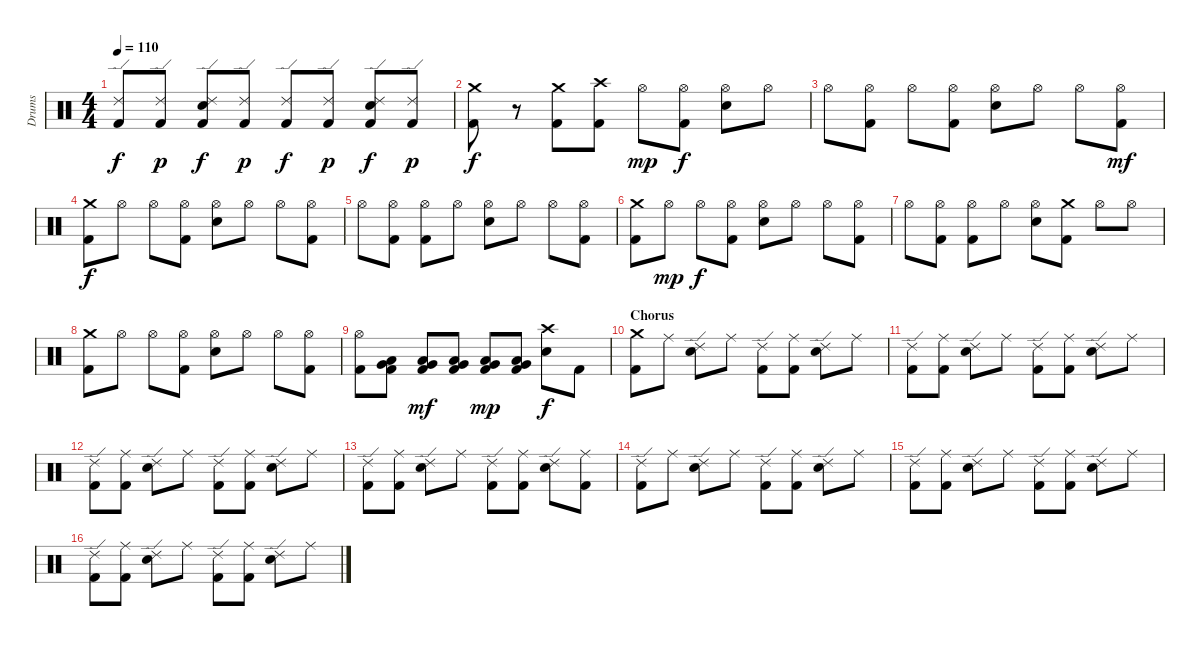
\track ("Drums" "Drums") {instrument percussion}
\staff {score}
\articulation defaults
\ts (4 4)
\tempo 110
\clef neutral
\ks c
("Ride (edge) 2" "Kick (hit) 2").8{dy f} ("Ride (edge) 2" "Kick (hit) 2").8{dy p} ("Ride (edge) 2" "Electric Snare (hit)" "Kick (hit) 2").8{dy f} ("Ride (edge) 2" "Kick (hit) 2").8{dy p} ("Ride (edge) 2" "Kick (hit) 2").8{dy f} ("Ride (edge) 2" "Kick (hit) 2").8{dy p} ("Ride (edge) 2" "Electric Snare (hit)" "Kick (hit) 2").8{dy f} ("Ride (edge) 2" "Kick (hit) 2").8{dy p} |
("Crash medium (hit)" "Kick (hit) 2").8{dy f} r.8 ("Crash medium (hit)" "Kick (hit) 2").8 ("Crash high (hit)" "Kick (hit) 2").8 "Hi-Hat (open)".8{dy mp} ("Hi-Hat (open)" "Kick (hit) 2").8{dy f} ("Hi-Hat (open)" "Electric Snare (hit)").8 "Hi-Hat (open)".8 |
"Hi-Hat (open)".8 ("Hi-Hat (open)" "Kick (hit) 2").8 "Hi-Hat (open)".8 ("Hi-Hat (open)" "Kick (hit) 2").8 ("Hi-Hat (open)" "Electric Snare (hit)").8 "Hi-Hat (open)".8 "Hi-Hat (open)".8 ("Hi-Hat (open)" "Kick (hit) 2").8{dy mf} |
("Crash medium (hit)" "Kick (hit) 2").8{dy f} "Hi-Hat (open)".8 "Hi-Hat (open)".8 ("Hi-Hat (open)" "Kick (hit) 2").8 ("Hi-Hat (open)" "Electric Snare (hit)").8 "Hi-Hat (open)".8 "Hi-Hat (open)".8 ("Hi-Hat (open)" "Kick (hit) 2").8 |
"Hi-Hat (open)".8 ("Hi-Hat (open)" "Kick (hit) 2").8 ("Hi-Hat (open)" "Kick (hit) 2").8 "Hi-Hat (open)".8 ("Hi-Hat (open)" "Electric Snare (hit)").8 "Hi-Hat (open)".8 "Hi-Hat (open)".8 ("Hi-Hat (open)" "Kick (hit) 2").8 |
("Crash medium (hit)" "Kick (hit) 2").8 "Hi-Hat (open)".8{dy mp} "Hi-Hat (open)".8{dy f} ("Hi-Hat (open)" "Kick (hit) 2").8 ("Hi-Hat (open)" "Electric Snare (hit)").8 "Hi-Hat (open)".8 "Hi-Hat (open)".8 ("Hi-Hat (open)" "Kick (hit) 2").8 |
"Hi-Hat (open)".8 ("Hi-Hat (open)" "Kick (hit) 2").8 ("Hi-Hat (open)" "Kick (hit) 2").8 "Hi-Hat (open)".8 ("Hi-Hat (open)" "Electric Snare (hit)").8 ("Crash medium (hit)" "Kick (hit) 2").8 "Hi-Hat (open)".8 "Hi-Hat (open)".8 |
("Crash medium (hit)" "Kick (hit) 2").8 "Hi-Hat (open)".8 "Hi-Hat (open)".8 ("Hi-Hat (open)" "Kick (hit) 2").8 ("Hi-Hat (open)" "Electric Snare (hit)").8 "Hi-Hat (open)".8 "Hi-Hat (open)".8 ("Hi-Hat (open)" "Kick (hit) 2").8 |
("Hi-Hat (open)" "Kick (hit) 2").8 ("Very Low Tom (hit)" "Low Floor Tom (hit)" "Kick (hit) 2").8 ("Very Low Tom (hit)" "Low Floor Tom (hit)" "Kick (hit) 2").8{dy mf} ("Very Low Tom (hit)" "Low Floor Tom (hit)" "Kick (hit) 2").8 ("Very Low Tom (hit)" "Low Floor Tom (hit)" "Kick (hit) 2").8{dy mp} ("Very Low Tom (hit)" "Low Floor Tom (hit)" "Kick (hit) 2").8 ("Crash high (hit)" "Electric Snare (hit)").8{dy f} "Kick (hit) 2".8 |
\section ("" "Chorus")
("Crash medium (hit)" "Kick (hit) 2").8 "Ride (middle)".8 ("Ride (edge) 2" "Electric Snare (hit)").8 "Ride (middle)".8 ("Ride (edge) 2" "Kick (hit) 2").8 ("Ride (middle)" "Kick (hit) 2").8 ("Ride (edge) 2" "Electric Snare (hit)").8 "Ride (middle)".8 |
("Ride (edge) 2" "Kick (hit) 2").8 ("Ride (middle)" "Kick (hit) 2").8 ("Ride (edge) 2" "Electric Snare (hit)").8 "Ride (middle)".8 ("Ride (edge) 2" "Kick (hit) 2").8 ("Ride (middle)" "Kick (hit) 2").8 ("Ride (edge) 2" "Electric Snare (hit)").8 "Ride (middle)".8 |
("Ride (edge) 2" "Kick (hit) 2").8 ("Ride (middle)" "Kick (hit) 2").8 ("Ride (edge) 2" "Electric Snare (hit)").8 "Ride (middle)".8 ("Ride (edge) 2" "Kick (hit) 2").8 ("Ride (middle)" "Kick (hit) 2").8 ("Ride (edge) 2" "Electric Snare (hit)").8 "Ride (middle)".8 |
("Ride (edge) 2" "Kick (hit) 2").8 ("Ride (middle)" "Kick (hit) 2").8 ("Ride (edge) 2" "Electric Snare (hit)").8 "Ride (middle)".8 ("Ride (edge) 2" "Kick (hit) 2").8 ("Ride (middle)" "Kick (hit) 2").8 ("Ride (edge) 2" "Electric Snare (hit)").8 ("Ride (middle)" "Kick (hit) 2").8 |
("Ride (edge) 2" "Kick (hit) 2").8 "Ride (middle)".8 ("Ride (edge) 2" "Electric Snare (hit)").8 "Ride (middle)".8 ("Ride (edge) 2" "Kick (hit) 2").8 ("Ride (middle)" "Kick (hit) 2").8 ("Ride (edge) 2" "Electric Snare (hit)").8 "Ride (middle)".8 |
("Ride (edge) 2" "Kick (hit) 2").8 ("Ride (middle)" "Kick (hit) 2").8 ("Ride (edge) 2" "Electric Snare (hit)").8 "Ride (middle)".8 ("Ride (edge) 2" "Kick (hit) 2").8 ("Ride (middle)" "Kick (hit) 2").8 ("Ride (edge) 2" "Electric Snare (hit)").8 "Ride (middle)".8 |
("Ride (edge) 2" "Kick (hit) 2").8 ("Ride (middle)" "Kick (hit) 2").8 ("Ride (edge) 2" "Electric Snare (hit)").8 "Ride (middle)".8 ("Ride (edge) 2" "Kick (hit) 2").8 ("Ride (middle)" "Kick (hit) 2").8 ("Ride (edge) 2" "Electric Snare (hit)").8 "Ride (middle)".8
